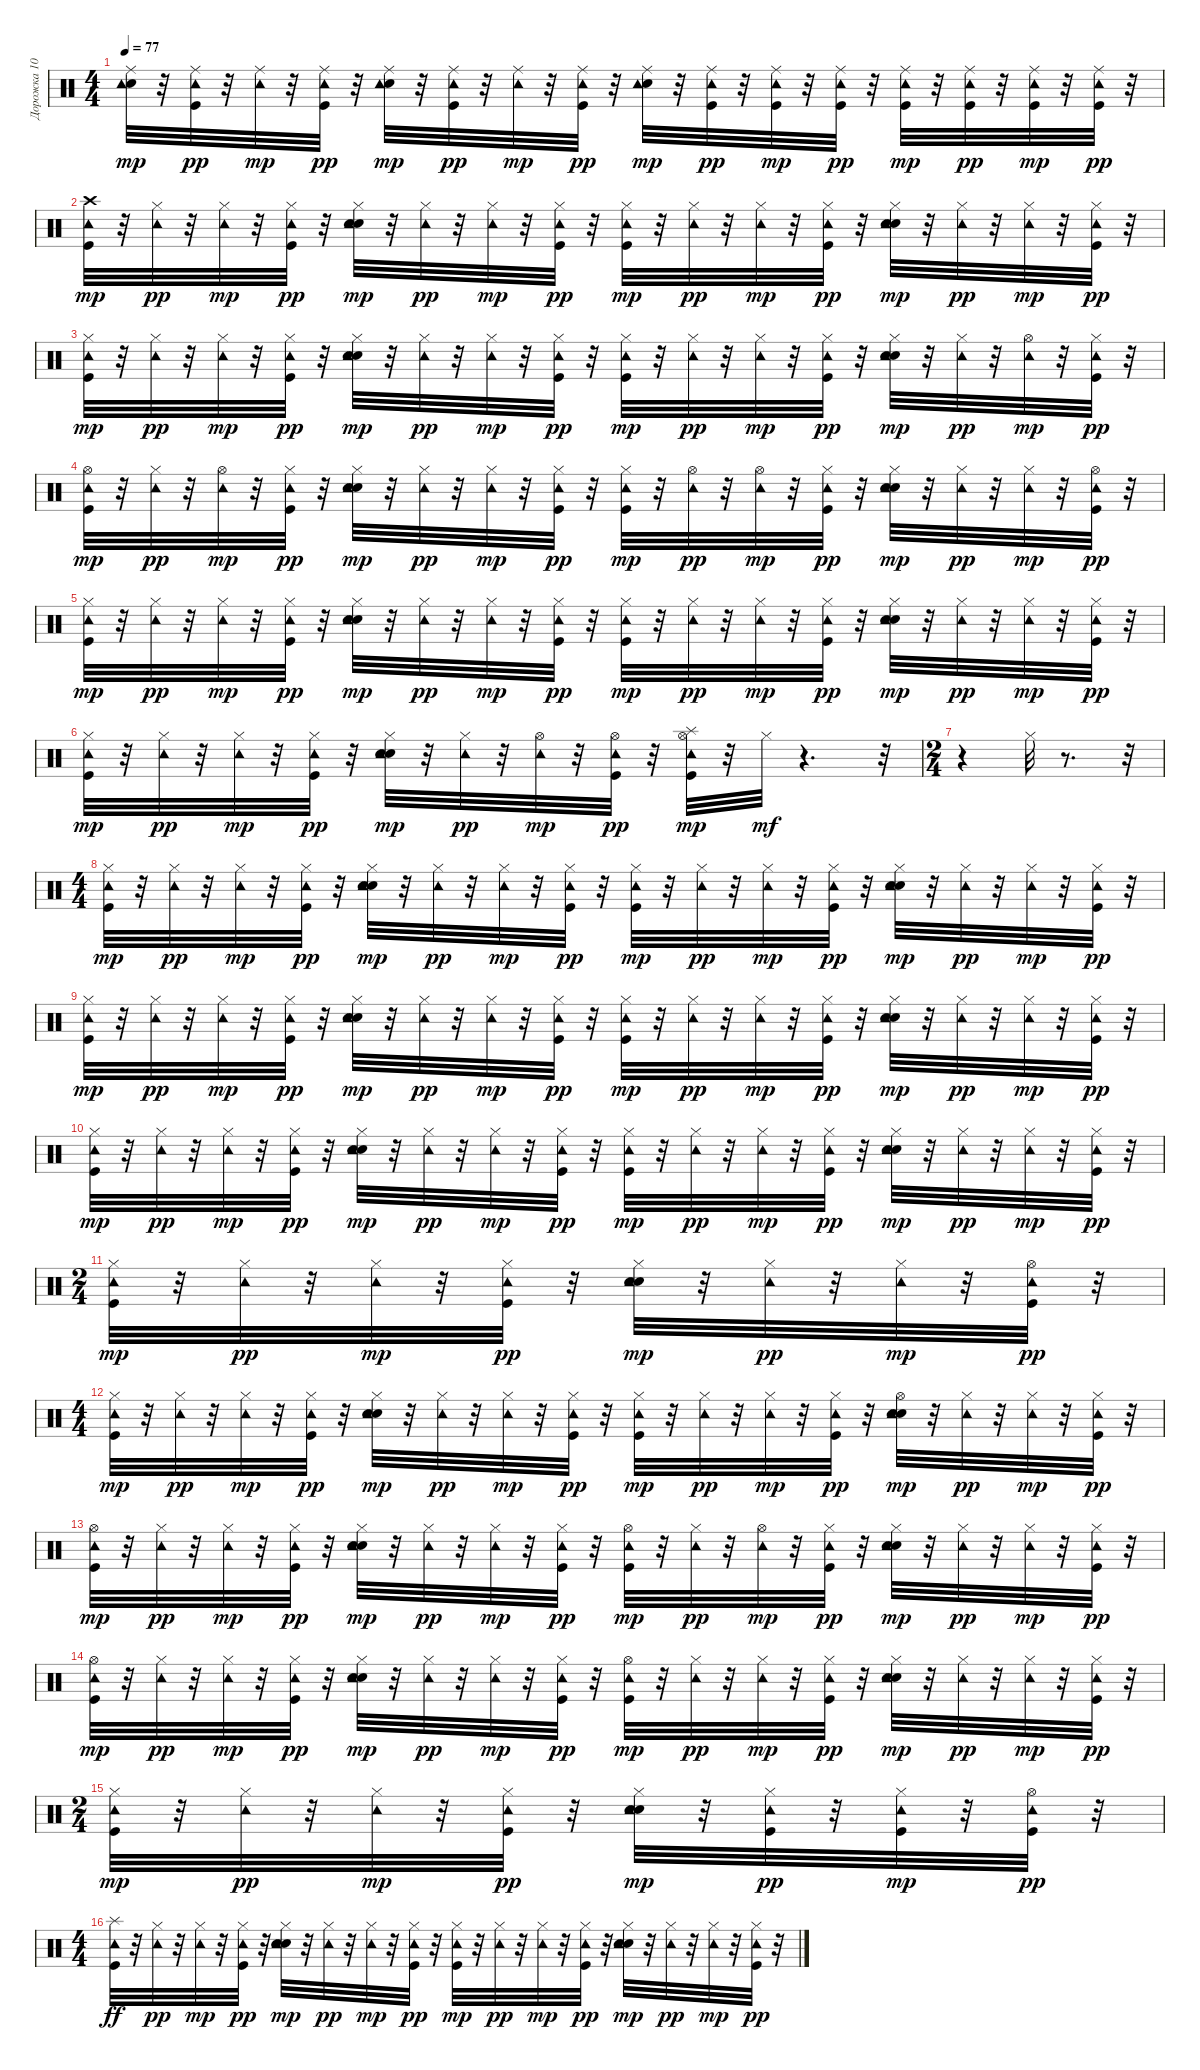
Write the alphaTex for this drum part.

\track ("Дорожка 10" "Дорожка 10") {instrument percussion}
\staff {score}
\articulation defaults
\ts (4 4)
\tempo 77
\clef neutral
\ks c
("Snare (hit) 2" "Ride (middle)" "Tambourine (hit)").32{dy mp} r.32 ("Kick (hit)" "Ride (middle)" "Tambourine (hit)").32{dy pp} r.32 ("Ride (middle)" "Tambourine (hit)").32{dy mp} r.32 ("Kick (hit)" "Ride (middle)" "Tambourine (hit)").32{dy pp} r.32 ("Snare (hit) 2" "Ride (middle)" "Tambourine (hit)").32{dy mp} r.32 ("Kick (hit)" "Ride (middle)" "Tambourine (hit)").32{dy pp} r.32 ("Ride (middle)" "Tambourine (hit)").32{dy mp} r.32 ("Kick (hit)" "Ride (middle)" "Tambourine (hit)").32{dy pp} r.32 ("Snare (hit) 2" "Ride (middle)" "Tambourine (hit)").32{dy mp} r.32 ("Kick (hit)" "Ride (middle)" "Tambourine (hit)").32{dy pp} r.32 ("Kick (hit)" "Ride (middle)" "Tambourine (hit)").32{dy mp} r.32 ("Kick (hit)" "Ride (middle)" "Tambourine (hit)").32{dy pp} r.32 ("Kick (hit)" "Ride (middle)" "Tambourine (hit)").32{dy mp} r.32 ("Kick (hit)" "Ride (middle)" "Tambourine (hit)").32{dy pp} r.32 ("Kick (hit)" "Ride (middle)" "Tambourine (hit)").32{dy mp} r.32 ("Kick (hit)" "Ride (middle)" "Tambourine (hit)").32{dy pp} r.32 |
("Kick (hit)" "Crash high (hit)" "Tambourine (hit)").32{dy mp} r.32 ("Hi-Hat (closed)" "Tambourine (hit)").32{dy pp} r.32 ("Hi-Hat (closed)" "Tambourine (hit)").32{dy mp} r.32 ("Kick (hit)" "Hi-Hat (closed)" "Tambourine (hit)").32{dy pp} r.32 ("Snare (hit) 2" "Hand Clap (hit)" "Hi-Hat (closed)" "Tambourine (hit)").32{dy mp} r.32 ("Hi-Hat (closed)" "Tambourine (hit)").32{dy pp} r.32 ("Hi-Hat (closed)" "Tambourine (hit)").32{dy mp} r.32 ("Kick (hit)" "Hi-Hat (closed)" "Tambourine (hit)").32{dy pp} r.32 ("Kick (hit)" "Hi-Hat (closed)" "Tambourine (hit)").32{dy mp} r.32 ("Hi-Hat (closed)" "Tambourine (hit)").32{dy pp} r.32 ("Hi-Hat (closed)" "Tambourine (hit)").32{dy mp} r.32 ("Kick (hit)" "Hi-Hat (closed)" "Tambourine (hit)").32{dy pp} r.32 ("Snare (hit) 2" "Hand Clap (hit)" "Hi-Hat (closed)" "Tambourine (hit)").32{dy mp} r.32 ("Hi-Hat (closed)" "Tambourine (hit)").32{dy pp} r.32 ("Hi-Hat (closed)" "Tambourine (hit)").32{dy mp} r.32 ("Kick (hit)" "Hi-Hat (closed)" "Tambourine (hit)").32{dy pp} r.32 |
("Kick (hit)" "Hi-Hat (closed)" "Tambourine (hit)").32{dy mp} r.32 ("Hi-Hat (closed)" "Tambourine (hit)").32{dy pp} r.32 ("Hi-Hat (closed)" "Tambourine (hit)").32{dy mp} r.32 ("Kick (hit)" "Hi-Hat (closed)" "Tambourine (hit)").32{dy pp} r.32 ("Snare (hit) 2" "Hand Clap (hit)" "Hi-Hat (closed)" "Tambourine (hit)").32{dy mp} r.32 ("Hi-Hat (closed)" "Tambourine (hit)").32{dy pp} r.32 ("Hi-Hat (closed)" "Tambourine (hit)").32{dy mp} r.32 ("Kick (hit)" "Hi-Hat (closed)" "Tambourine (hit)").32{dy pp} r.32 ("Kick (hit)" "Hi-Hat (closed)" "Tambourine (hit)").32{dy mp} r.32 ("Hi-Hat (closed)" "Tambourine (hit)").32{dy pp} r.32 ("Hi-Hat (closed)" "Tambourine (hit)").32{dy mp} r.32 ("Kick (hit)" "Hi-Hat (closed)" "Tambourine (hit)").32{dy pp} r.32 ("Snare (hit) 2" "Hand Clap (hit)" "Hi-Hat (closed)" "Tambourine (hit)").32{dy mp} r.32 ("Hi-Hat (closed)" "Tambourine (hit)").32{dy pp} r.32 ("Hi-Hat (open)" "Tambourine (hit)").32{dy mp} r.32 ("Kick (hit)" "Hi-Hat (closed)" "Tambourine (hit)").32{dy pp} r.32 |
("Kick (hit)" "Hi-Hat (open)" "Tambourine (hit)").32{dy mp} r.32 ("Hi-Hat (closed)" "Tambourine (hit)").32{dy pp} r.32 ("Hi-Hat (open)" "Tambourine (hit)").32{dy mp} r.32 ("Kick (hit)" "Hi-Hat (closed)" "Tambourine (hit)").32{dy pp} r.32 ("Snare (hit) 2" "Hand Clap (hit)" "Hi-Hat (closed)" "Tambourine (hit)").32{dy mp} r.32 ("Hi-Hat (closed)" "Tambourine (hit)").32{dy pp} r.32 ("Hi-Hat (closed)" "Tambourine (hit)").32{dy mp} r.32 ("Kick (hit)" "Hi-Hat (closed)" "Tambourine (hit)").32{dy pp} r.32 ("Kick (hit)" "Hi-Hat (closed)" "Tambourine (hit)").32{dy mp} r.32 ("Hi-Hat (open)" "Tambourine (hit)").32{dy pp} r.32 ("Hi-Hat (open)" "Tambourine (hit)").32{dy mp} r.32 ("Kick (hit)" "Hi-Hat (closed)" "Tambourine (hit)").32{dy pp} r.32 ("Snare (hit) 2" "Hand Clap (hit)" "Hi-Hat (closed)" "Tambourine (hit)").32{dy mp} r.32 ("Hi-Hat (closed)" "Tambourine (hit)").32{dy pp} r.32 ("Hi-Hat (closed)" "Tambourine (hit)").32{dy mp} r.32 ("Kick (hit)" "Hi-Hat (open)" "Tambourine (hit)").32{dy pp} r.32 |
("Kick (hit)" "Hi-Hat (closed)" "Tambourine (hit)").32{dy mp} r.32 ("Hi-Hat (closed)" "Tambourine (hit)").32{dy pp} r.32 ("Hi-Hat (closed)" "Tambourine (hit)").32{dy mp} r.32 ("Kick (hit)" "Hi-Hat (closed)" "Tambourine (hit)").32{dy pp} r.32 ("Snare (hit) 2" "Hand Clap (hit)" "Hi-Hat (closed)" "Tambourine (hit)").32{dy mp} r.32 ("Hi-Hat (closed)" "Tambourine (hit)").32{dy pp} r.32 ("Hi-Hat (closed)" "Tambourine (hit)").32{dy mp} r.32 ("Kick (hit)" "Hi-Hat (closed)" "Tambourine (hit)").32{dy pp} r.32 ("Kick (hit)" "Hi-Hat (closed)" "Tambourine (hit)").32{dy mp} r.32 ("Hi-Hat (closed)" "Tambourine (hit)").32{dy pp} r.32 ("Hi-Hat (closed)" "Tambourine (hit)").32{dy mp} r.32 ("Kick (hit)" "Hi-Hat (closed)" "Tambourine (hit)").32{dy pp} r.32 ("Snare (hit) 2" "Hand Clap (hit)" "Hi-Hat (closed)" "Tambourine (hit)").32{dy mp} r.32 ("Hi-Hat (closed)" "Tambourine (hit)").32{dy pp} r.32 ("Hi-Hat (closed)" "Tambourine (hit)").32{dy mp} r.32 ("Kick (hit)" "Hi-Hat (closed)" "Tambourine (hit)").32{dy pp} r.32 |
("Kick (hit)" "Hi-Hat (closed)" "Tambourine (hit)").32{dy mp} r.32 ("Hi-Hat (closed)" "Tambourine (hit)").32{dy pp} r.32 ("Hi-Hat (closed)" "Tambourine (hit)").32{dy mp} r.32 ("Kick (hit)" "Hi-Hat (closed)" "Tambourine (hit)").32{dy pp} r.32 ("Snare (hit) 2" "Hand Clap (hit)" "Hi-Hat (closed)" "Tambourine (hit)").32{dy mp} r.32 ("Hi-Hat (closed)" "Tambourine (hit)").32{dy pp} r.32 ("Hi-Hat (open)" "Tambourine (hit)").32{dy mp} r.32 ("Kick (hit)" "Hi-Hat (open)" "Tambourine (hit)").32{dy pp} r.32 ("Kick (hit)" "Hi-Hat (open)" "Tambourine (hit)" "Splash (hit)").32{dy mp} r.32 "Hi-Hat (closed)".32{dy mf} r.4{d} r.32 |
\ts (2 4)
r.4 "Hi-Hat (closed)".32 r.8{d} r.32 |
\ts (4 4)
("Kick (hit)" "Hi-Hat (closed)" "Tambourine (hit)").32{dy mp} r.32 ("Hi-Hat (closed)" "Tambourine (hit)").32{dy pp} r.32 ("Hi-Hat (closed)" "Tambourine (hit)").32{dy mp} r.32 ("Kick (hit)" "Hi-Hat (closed)" "Tambourine (hit)").32{dy pp} r.32 ("Snare (hit) 2" "Hand Clap (hit)" "Hi-Hat (closed)" "Tambourine (hit)").32{dy mp} r.32 ("Hi-Hat (closed)" "Tambourine (hit)").32{dy pp} r.32 ("Hi-Hat (closed)" "Tambourine (hit)").32{dy mp} r.32 ("Kick (hit)" "Hi-Hat (closed)" "Tambourine (hit)").32{dy pp} r.32 ("Kick (hit)" "Hi-Hat (closed)" "Tambourine (hit)").32{dy mp} r.32 ("Hi-Hat (closed)" "Tambourine (hit)").32{dy pp} r.32 ("Hi-Hat (closed)" "Tambourine (hit)").32{dy mp} r.32 ("Kick (hit)" "Hi-Hat (closed)" "Tambourine (hit)").32{dy pp} r.32 ("Snare (hit) 2" "Hand Clap (hit)" "Hi-Hat (closed)" "Tambourine (hit)").32{dy mp} r.32 ("Hi-Hat (closed)" "Tambourine (hit)").32{dy pp} r.32 ("Hi-Hat (closed)" "Tambourine (hit)").32{dy mp} r.32 ("Kick (hit)" "Hi-Hat (closed)" "Tambourine (hit)").32{dy pp} r.32 |
("Kick (hit)" "Hi-Hat (closed)" "Tambourine (hit)").32{dy mp} r.32 ("Hi-Hat (closed)" "Tambourine (hit)").32{dy pp} r.32 ("Hi-Hat (closed)" "Tambourine (hit)").32{dy mp} r.32 ("Kick (hit)" "Hi-Hat (closed)" "Tambourine (hit)").32{dy pp} r.32 ("Snare (hit) 2" "Hand Clap (hit)" "Hi-Hat (closed)" "Tambourine (hit)").32{dy mp} r.32 ("Hi-Hat (closed)" "Tambourine (hit)").32{dy pp} r.32 ("Hi-Hat (closed)" "Tambourine (hit)").32{dy mp} r.32 ("Kick (hit)" "Hi-Hat (closed)" "Tambourine (hit)").32{dy pp} r.32 ("Kick (hit)" "Hi-Hat (closed)" "Tambourine (hit)").32{dy mp} r.32 ("Hi-Hat (closed)" "Tambourine (hit)").32{dy pp} r.32 ("Hi-Hat (closed)" "Tambourine (hit)").32{dy mp} r.32 ("Kick (hit)" "Hi-Hat (closed)" "Tambourine (hit)").32{dy pp} r.32 ("Snare (hit) 2" "Hand Clap (hit)" "Hi-Hat (closed)" "Tambourine (hit)").32{dy mp} r.32 ("Hi-Hat (closed)" "Tambourine (hit)").32{dy pp} r.32 ("Hi-Hat (closed)" "Tambourine (hit)").32{dy mp} r.32 ("Kick (hit)" "Hi-Hat (closed)" "Tambourine (hit)").32{dy pp} r.32 |
("Kick (hit)" "Hi-Hat (closed)" "Tambourine (hit)").32{dy mp} r.32 ("Hi-Hat (closed)" "Tambourine (hit)").32{dy pp} r.32 ("Hi-Hat (closed)" "Tambourine (hit)").32{dy mp} r.32 ("Kick (hit)" "Hi-Hat (closed)" "Tambourine (hit)").32{dy pp} r.32 ("Snare (hit) 2" "Hand Clap (hit)" "Hi-Hat (closed)" "Tambourine (hit)").32{dy mp} r.32 ("Hi-Hat (closed)" "Tambourine (hit)").32{dy pp} r.32 ("Hi-Hat (closed)" "Tambourine (hit)").32{dy mp} r.32 ("Kick (hit)" "Hi-Hat (closed)" "Tambourine (hit)").32{dy pp} r.32 ("Kick (hit)" "Hi-Hat (closed)" "Tambourine (hit)").32{dy mp} r.32 ("Hi-Hat (closed)" "Tambourine (hit)").32{dy pp} r.32 ("Hi-Hat (closed)" "Tambourine (hit)").32{dy mp} r.32 ("Kick (hit)" "Hi-Hat (closed)" "Tambourine (hit)").32{dy pp} r.32 ("Snare (hit) 2" "Hand Clap (hit)" "Hi-Hat (closed)" "Tambourine (hit)").32{dy mp} r.32 ("Hi-Hat (closed)" "Tambourine (hit)").32{dy pp} r.32 ("Hi-Hat (closed)" "Tambourine (hit)").32{dy mp} r.32 ("Kick (hit)" "Hi-Hat (closed)" "Tambourine (hit)").32{dy pp} r.32 |
\ts (2 4)
("Kick (hit)" "Hi-Hat (closed)" "Tambourine (hit)").32{dy mp} r.32 ("Hi-Hat (closed)" "Tambourine (hit)").32{dy pp} r.32 ("Hi-Hat (closed)" "Tambourine (hit)").32{dy mp} r.32 ("Kick (hit)" "Hi-Hat (closed)" "Tambourine (hit)").32{dy pp} r.32 ("Snare (hit) 2" "Hand Clap (hit)" "Hi-Hat (closed)" "Tambourine (hit)").32{dy mp} r.32 ("Hi-Hat (closed)" "Tambourine (hit)").32{dy pp} r.32 ("Hi-Hat (closed)" "Tambourine (hit)").32{dy mp} r.32 ("Kick (hit)" "Hi-Hat (open)" "Tambourine (hit)").32{dy pp} r.32 |
\ts (4 4)
("Kick (hit)" "Hi-Hat (closed)" "Tambourine (hit)").32{dy mp} r.32 ("Hi-Hat (closed)" "Tambourine (hit)").32{dy pp} r.32 ("Hi-Hat (closed)" "Tambourine (hit)").32{dy mp} r.32 ("Kick (hit)" "Hi-Hat (closed)" "Tambourine (hit)").32{dy pp} r.32 ("Snare (hit) 2" "Hand Clap (hit)" "Hi-Hat (closed)" "Tambourine (hit)").32{dy mp} r.32 ("Hi-Hat (closed)" "Tambourine (hit)").32{dy pp} r.32 ("Hi-Hat (closed)" "Tambourine (hit)").32{dy mp} r.32 ("Kick (hit)" "Hi-Hat (closed)" "Tambourine (hit)").32{dy pp} r.32 ("Kick (hit)" "Hi-Hat (closed)" "Tambourine (hit)").32{dy mp} r.32 ("Hi-Hat (closed)" "Tambourine (hit)").32{dy pp} r.32 ("Hi-Hat (closed)" "Tambourine (hit)").32{dy mp} r.32 ("Kick (hit)" "Hi-Hat (closed)" "Tambourine (hit)").32{dy pp} r.32 ("Snare (hit) 2" "Hand Clap (hit)" "Hi-Hat (open)" "Tambourine (hit)").32{dy mp} r.32 ("Hi-Hat (closed)" "Tambourine (hit)").32{dy pp} r.32 ("Hi-Hat (closed)" "Tambourine (hit)").32{dy mp} r.32 ("Kick (hit)" "Hi-Hat (closed)" "Tambourine (hit)").32{dy pp} r.32 |
("Kick (hit)" "Hi-Hat (open)" "Tambourine (hit)").32{dy mp} r.32 ("Hi-Hat (closed)" "Tambourine (hit)").32{dy pp} r.32 ("Hi-Hat (closed)" "Tambourine (hit)").32{dy mp} r.32 ("Kick (hit)" "Hi-Hat (closed)" "Tambourine (hit)").32{dy pp} r.32 ("Snare (hit) 2" "Hand Clap (hit)" "Hi-Hat (closed)" "Tambourine (hit)").32{dy mp} r.32 ("Hi-Hat (closed)" "Tambourine (hit)").32{dy pp} r.32 ("Hi-Hat (closed)" "Tambourine (hit)").32{dy mp} r.32 ("Kick (hit)" "Hi-Hat (closed)" "Tambourine (hit)").32{dy pp} r.32 ("Kick (hit)" "Hi-Hat (open)" "Tambourine (hit)").32{dy mp} r.32 ("Hi-Hat (closed)" "Tambourine (hit)").32{dy pp} r.32 ("Hi-Hat (open)" "Tambourine (hit)").32{dy mp} r.32 ("Kick (hit)" "Hi-Hat (closed)" "Tambourine (hit)").32{dy pp} r.32 ("Snare (hit) 2" "Hand Clap (hit)" "Hi-Hat (closed)" "Tambourine (hit)").32{dy mp} r.32 ("Hi-Hat (closed)" "Tambourine (hit)").32{dy pp} r.32 ("Hi-Hat (closed)" "Tambourine (hit)").32{dy mp} r.32 ("Kick (hit)" "Hi-Hat (closed)" "Tambourine (hit)").32{dy pp} r.32 |
("Kick (hit)" "Hi-Hat (open)" "Tambourine (hit)").32{dy mp} r.32 ("Hi-Hat (closed)" "Tambourine (hit)").32{dy pp} r.32 ("Hi-Hat (closed)" "Tambourine (hit)").32{dy mp} r.32 ("Kick (hit)" "Hi-Hat (closed)" "Tambourine (hit)").32{dy pp} r.32 ("Snare (hit) 2" "Hand Clap (hit)" "Hi-Hat (closed)" "Tambourine (hit)").32{dy mp} r.32 ("Hi-Hat (closed)" "Tambourine (hit)").32{dy pp} r.32 ("Hi-Hat (closed)" "Tambourine (hit)").32{dy mp} r.32 ("Kick (hit)" "Hi-Hat (closed)" "Tambourine (hit)").32{dy pp} r.32 ("Kick (hit)" "Hi-Hat (open)" "Tambourine (hit)").32{dy mp} r.32 ("Hi-Hat (closed)" "Tambourine (hit)").32{dy pp} r.32 ("Hi-Hat (closed)" "Tambourine (hit)").32{dy mp} r.32 ("Kick (hit)" "Hi-Hat (closed)" "Tambourine (hit)").32{dy pp} r.32 ("Snare (hit) 2" "Hand Clap (hit)" "Hi-Hat (closed)" "Tambourine (hit)").32{dy mp} r.32 ("Hi-Hat (closed)" "Tambourine (hit)").32{dy pp} r.32 ("Hi-Hat (closed)" "Tambourine (hit)").32{dy mp} r.32 ("Kick (hit)" "Hi-Hat (closed)" "Tambourine (hit)").32{dy pp} r.32 |
\ts (2 4)
("Kick (hit)" "Hi-Hat (closed)" "Tambourine (hit)").32{dy mp} r.32 ("Hi-Hat (closed)" "Tambourine (hit)").32{dy pp} r.32 ("Hi-Hat (closed)" "Tambourine (hit)").32{dy mp} r.32 ("Kick (hit)" "Hi-Hat (closed)" "Tambourine (hit)").32{dy pp} r.32 ("Snare (hit) 2" "Hand Clap (hit)" "Hi-Hat (closed)" "Tambourine (hit)").32{dy mp} r.32 ("Kick (hit)" "Hi-Hat (closed)" "Tambourine (hit)").32{dy pp} r.32 ("Kick (hit)" "Hi-Hat (closed)" "Tambourine (hit)").32{dy mp} r.32 ("Kick (hit)" "Hi-Hat (open)" "Tambourine (hit)").32{dy pp} r.32 |
\ts (4 4)
("Kick (hit)" "Tambourine (hit)" "Splash (hit)").32{dy ff} r.32 ("Hi-Hat (closed)" "Tambourine (hit)").32{dy pp} r.32 ("Hi-Hat (closed)" "Tambourine (hit)").32{dy mp} r.32 ("Kick (hit)" "Hi-Hat (closed)" "Tambourine (hit)").32{dy pp} r.32 ("Snare (hit) 2" "Hand Clap (hit)" "Hi-Hat (closed)" "Tambourine (hit)").32{dy mp} r.32 ("Hi-Hat (closed)" "Tambourine (hit)").32{dy pp} r.32 ("Hi-Hat (closed)" "Tambourine (hit)").32{dy mp} r.32 ("Kick (hit)" "Hi-Hat (closed)" "Tambourine (hit)").32{dy pp} r.32 ("Kick (hit)" "Hi-Hat (closed)" "Tambourine (hit)").32{dy mp} r.32 ("Hi-Hat (closed)" "Tambourine (hit)").32{dy pp} r.32 ("Hi-Hat (closed)" "Tambourine (hit)").32{dy mp} r.32 ("Kick (hit)" "Hi-Hat (closed)" "Tambourine (hit)").32{dy pp} r.32 ("Snare (hit) 2" "Hand Clap (hit)" "Hi-Hat (closed)" "Tambourine (hit)").32{dy mp} r.32 ("Hi-Hat (closed)" "Tambourine (hit)").32{dy pp} r.32 ("Hi-Hat (closed)" "Tambourine (hit)").32{dy mp} r.32 ("Kick (hit)" "Hi-Hat (closed)" "Tambourine (hit)").32{dy pp} r.32
